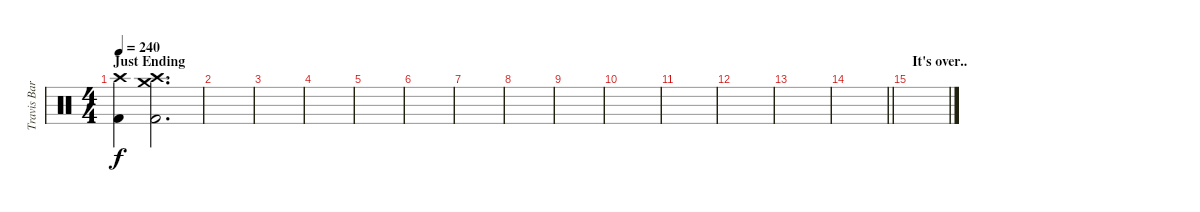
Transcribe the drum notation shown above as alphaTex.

\track ("Travis Barker - Drums" "Travis Bar") {instrument percussion}
\staff {score}
\articulation defaults
\ts (4 4)
\section ("" "Just Ending")
\tempo 240
\clef neutral
\ks c
("Crash high (hit)" "Kick (hit) 2").4{dy f} ("Crash medium (hit)" "Crash high (hit)" "Kick (hit) 2").2{d} |
|
|
|
|
|
|
|
|
|
|
|
|
\barLineRight lightlight
|
\section ("" "It's over..")
